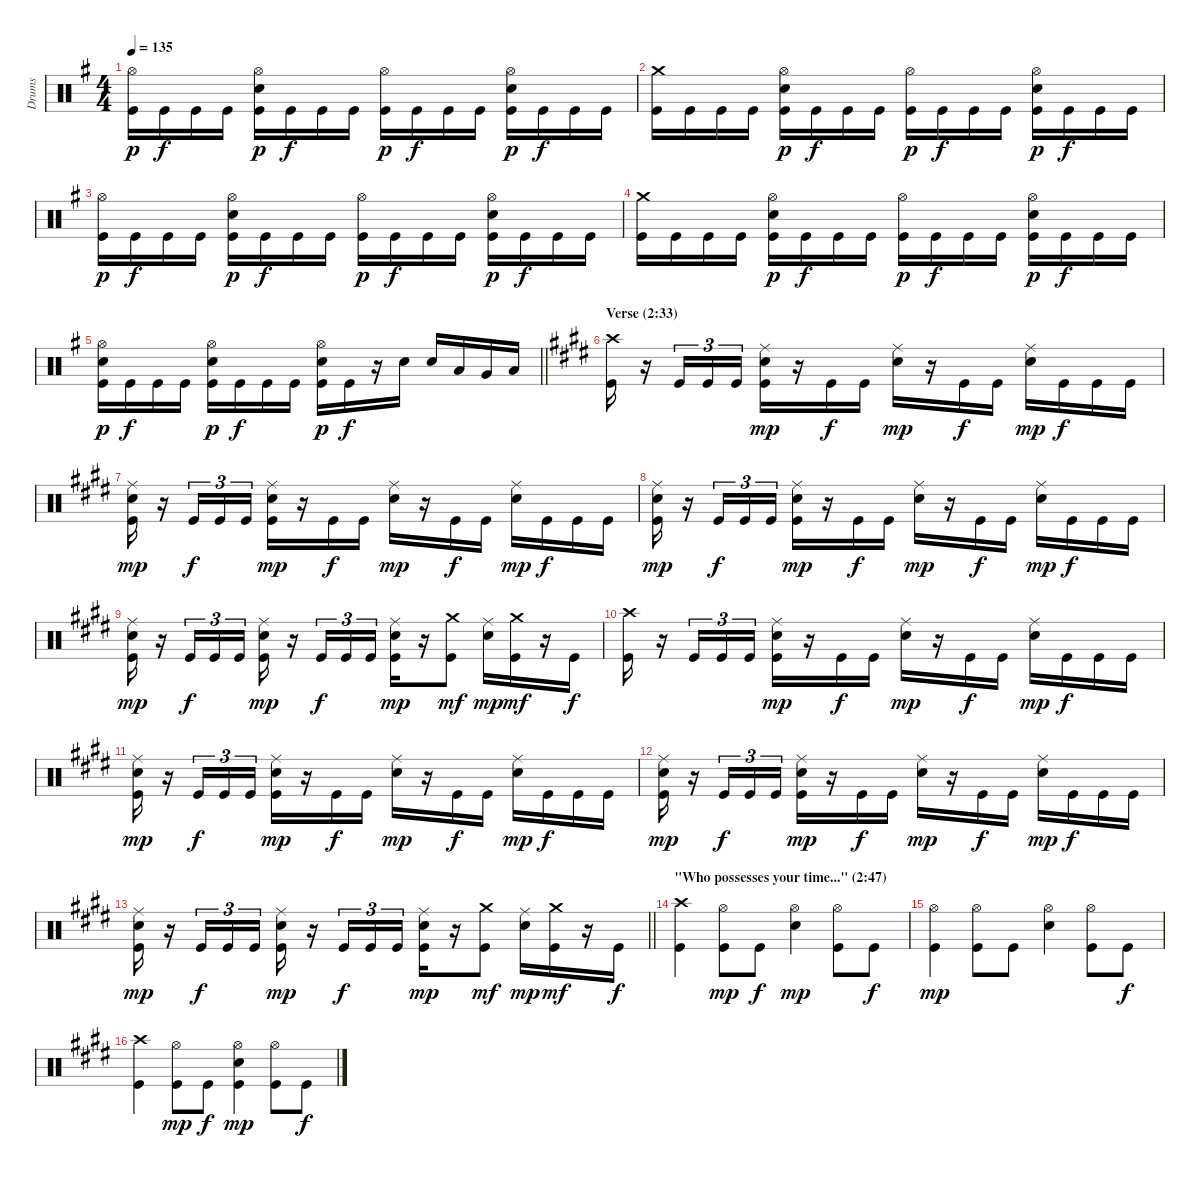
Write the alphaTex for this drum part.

\track ("Drums" "Drums") {instrument percussion}
\staff {score}
\articulation defaults
\ts (4 4)
\tempo 135
\clef neutral
\ks eminor
("Hi-Hat (open)" "Kick (hit)").16{dy p} "Kick (hit)".16{dy f} "Kick (hit)".16 "Kick (hit)".16 ("Hi-Hat (open)" "Snare (hit) 2" "Kick (hit)").16{dy p} "Kick (hit)".16{dy f} "Kick (hit)".16 "Kick (hit)".16 ("Hi-Hat (open)" "Kick (hit)").16{dy p} "Kick (hit)".16{dy f} "Kick (hit)".16 "Kick (hit)".16 ("Hi-Hat (open)" "Snare (hit) 2" "Kick (hit)").16{dy p} "Kick (hit)".16{dy f} "Kick (hit)".16 "Kick (hit)".16 |
("Crash medium (hit)" "Kick (hit)").16 "Kick (hit)".16 "Kick (hit)".16 "Kick (hit)".16 ("Hi-Hat (open)" "Snare (hit) 2" "Kick (hit)").16{dy p} "Kick (hit)".16{dy f} "Kick (hit)".16 "Kick (hit)".16 ("Hi-Hat (open)" "Kick (hit)").16{dy p} "Kick (hit)".16{dy f} "Kick (hit)".16 "Kick (hit)".16 ("Hi-Hat (open)" "Snare (hit) 2" "Kick (hit)").16{dy p} "Kick (hit)".16{dy f} "Kick (hit)".16 "Kick (hit)".16 |
("Hi-Hat (open)" "Kick (hit)").16{dy p} "Kick (hit)".16{dy f} "Kick (hit)".16 "Kick (hit)".16 ("Hi-Hat (open)" "Snare (hit) 2" "Kick (hit)").16{dy p} "Kick (hit)".16{dy f} "Kick (hit)".16 "Kick (hit)".16 ("Hi-Hat (open)" "Kick (hit)").16{dy p} "Kick (hit)".16{dy f} "Kick (hit)".16 "Kick (hit)".16 ("Hi-Hat (open)" "Snare (hit) 2" "Kick (hit)").16{dy p} "Kick (hit)".16{dy f} "Kick (hit)".16 "Kick (hit)".16 |
("Crash medium (hit)" "Kick (hit)").16 "Kick (hit)".16 "Kick (hit)".16 "Kick (hit)".16 ("Hi-Hat (open)" "Snare (hit) 2" "Kick (hit)").16{dy p} "Kick (hit)".16{dy f} "Kick (hit)".16 "Kick (hit)".16 ("Hi-Hat (open)" "Kick (hit)").16{dy p} "Kick (hit)".16{dy f} "Kick (hit)".16 "Kick (hit)".16 ("Hi-Hat (open)" "Snare (hit) 2" "Kick (hit)").16{dy p} "Kick (hit)".16{dy f} "Kick (hit)".16 "Kick (hit)".16 |
\barLineRight lightlight
("Hi-Hat (open)" "Snare (hit) 2" "Kick (hit)").16{dy p} "Kick (hit)".16{dy f} "Kick (hit)".16 "Kick (hit)".16 ("Hi-Hat (open)" "Snare (hit) 2" "Kick (hit)").16{dy p} "Kick (hit)".16{dy f} "Kick (hit)".16 "Kick (hit)".16 ("Hi-Hat (open)" "Snare (hit) 2" "Kick (hit)").16{dy p} "Kick (hit)".16{dy f} r.16 "Snare (hit) 2".16 "Snare (hit) 2".16 "Low Tom (hit)".16 "Very Low Tom (hit)".16 "Low Floor Tom (hit)".16 |
\section ("" "Verse (2:33)")
\ks c#minor
("Crash high (hit)" "Kick (hit)").16 r.16 "Kick (hit)".16{tu (3 2)} "Kick (hit)".16{tu (3 2)} "Kick (hit)".16{tu (3 2)} ("Ride (middle)" "Snare (hit) 2" "Kick (hit)").16{dy mp} r.16 "Kick (hit)".16{dy f} "Kick (hit)".16 ("Ride (middle)" "Snare (hit) 2").16{dy mp} r.16 "Kick (hit)".16{dy f} "Kick (hit)".16 ("Ride (middle)" "Snare (hit) 2").16{dy mp} "Kick (hit)".16{dy f} "Kick (hit)".16 "Kick (hit)".16 |
("Ride (middle)" "Snare (hit) 2" "Kick (hit)").16{dy mp} r.16 "Kick (hit)".16{tu (3 2) dy f} "Kick (hit)".16{tu (3 2)} "Kick (hit)".16{tu (3 2)} ("Ride (middle)" "Snare (hit) 2" "Kick (hit)").16{dy mp} r.16 "Kick (hit)".16{dy f} "Kick (hit)".16 ("Ride (middle)" "Snare (hit) 2").16{dy mp} r.16 "Kick (hit)".16{dy f} "Kick (hit)".16 ("Ride (middle)" "Snare (hit) 2").16{dy mp} "Kick (hit)".16{dy f} "Kick (hit)".16 "Kick (hit)".16 |
("Ride (middle)" "Snare (hit) 2" "Kick (hit)").16{dy mp} r.16 "Kick (hit)".16{tu (3 2) dy f} "Kick (hit)".16{tu (3 2)} "Kick (hit)".16{tu (3 2)} ("Ride (middle)" "Snare (hit) 2" "Kick (hit)").16{dy mp} r.16 "Kick (hit)".16{dy f} "Kick (hit)".16 ("Ride (middle)" "Snare (hit) 2").16{dy mp} r.16 "Kick (hit)".16{dy f} "Kick (hit)".16 ("Ride (middle)" "Snare (hit) 2").16{dy mp} "Kick (hit)".16{dy f} "Kick (hit)".16 "Kick (hit)".16 |
("Ride (middle)" "Snare (hit) 2" "Kick (hit)").16{dy mp} r.16 "Kick (hit)".16{tu (3 2) dy f} "Kick (hit)".16{tu (3 2)} "Kick (hit)".16{tu (3 2)} ("Ride (middle)" "Snare (hit) 2" "Kick (hit)").16{dy mp} r.16 "Kick (hit)".16{tu (3 2) dy f} "Kick (hit)".16{tu (3 2)} "Kick (hit)".16{tu (3 2)} ("Ride (middle)" "Snare (hit) 2" "Kick (hit)").16{dy mp} r.16 ("Crash medium (hit)" "Kick (hit)").8{dy mf} ("Ride (middle)" "Snare (hit) 2").16{dy mp} ("Crash medium (hit)" "Kick (hit)").16{dy mf} r.16 "Kick (hit)".16{dy f} |
("Crash high (hit)" "Kick (hit)").16 r.16 "Kick (hit)".16{tu (3 2)} "Kick (hit)".16{tu (3 2)} "Kick (hit)".16{tu (3 2)} ("Ride (middle)" "Snare (hit) 2" "Kick (hit)").16{dy mp} r.16 "Kick (hit)".16{dy f} "Kick (hit)".16 ("Ride (middle)" "Snare (hit) 2").16{dy mp} r.16 "Kick (hit)".16{dy f} "Kick (hit)".16 ("Ride (middle)" "Snare (hit) 2").16{dy mp} "Kick (hit)".16{dy f} "Kick (hit)".16 "Kick (hit)".16 |
("Ride (middle)" "Snare (hit) 2" "Kick (hit)").16{dy mp} r.16 "Kick (hit)".16{tu (3 2) dy f} "Kick (hit)".16{tu (3 2)} "Kick (hit)".16{tu (3 2)} ("Ride (middle)" "Snare (hit) 2" "Kick (hit)").16{dy mp} r.16 "Kick (hit)".16{dy f} "Kick (hit)".16 ("Ride (middle)" "Snare (hit) 2").16{dy mp} r.16 "Kick (hit)".16{dy f} "Kick (hit)".16 ("Ride (middle)" "Snare (hit) 2").16{dy mp} "Kick (hit)".16{dy f} "Kick (hit)".16 "Kick (hit)".16 |
("Ride (middle)" "Snare (hit) 2" "Kick (hit)").16{dy mp} r.16 "Kick (hit)".16{tu (3 2) dy f} "Kick (hit)".16{tu (3 2)} "Kick (hit)".16{tu (3 2)} ("Ride (middle)" "Snare (hit) 2" "Kick (hit)").16{dy mp} r.16 "Kick (hit)".16{dy f} "Kick (hit)".16 ("Ride (middle)" "Snare (hit) 2").16{dy mp} r.16 "Kick (hit)".16{dy f} "Kick (hit)".16 ("Ride (middle)" "Snare (hit) 2").16{dy mp} "Kick (hit)".16{dy f} "Kick (hit)".16 "Kick (hit)".16 |
\barLineRight lightlight
("Ride (middle)" "Snare (hit) 2" "Kick (hit)").16{dy mp} r.16 "Kick (hit)".16{tu (3 2) dy f} "Kick (hit)".16{tu (3 2)} "Kick (hit)".16{tu (3 2)} ("Ride (middle)" "Snare (hit) 2" "Kick (hit)").16{dy mp} r.16 "Kick (hit)".16{tu (3 2) dy f} "Kick (hit)".16{tu (3 2)} "Kick (hit)".16{tu (3 2)} ("Ride (middle)" "Snare (hit) 2" "Kick (hit)").16{dy mp} r.16 ("Crash medium (hit)" "Kick (hit)").8{dy mf} ("Ride (middle)" "Snare (hit) 2").16{dy mp} ("Crash medium (hit)" "Kick (hit)").16{dy mf} r.16 "Kick (hit)".16{dy f} |
\section ("" "\"Who possesses your time...\" (2:47)")
("Crash high (hit)" "Kick (hit)").4 ("Hi-Hat (open)" "Kick (hit)").8{dy mp} "Kick (hit)".8{dy f} ("Hi-Hat (open)" "Snare (hit) 2").4{dy mp} ("Hi-Hat (open)" "Kick (hit)").8 "Kick (hit)".8{dy f} |
("Hi-Hat (open)" "Kick (hit)").4{dy mp} ("Hi-Hat (open)" "Kick (hit)").8 "Kick (hit)".8 ("Hi-Hat (open)" "Snare (hit) 2").4 ("Hi-Hat (open)" "Kick (hit)").8 "Kick (hit)".8{dy f} |
("Crash high (hit)" "Kick (hit)").4 ("Hi-Hat (open)" "Kick (hit)").8{dy mp} "Kick (hit)".8{dy f} ("Hi-Hat (open)" "Snare (hit) 2" "Kick (hit)").4{dy mp} ("Hi-Hat (open)" "Kick (hit)").8 "Kick (hit)".8{dy f}
